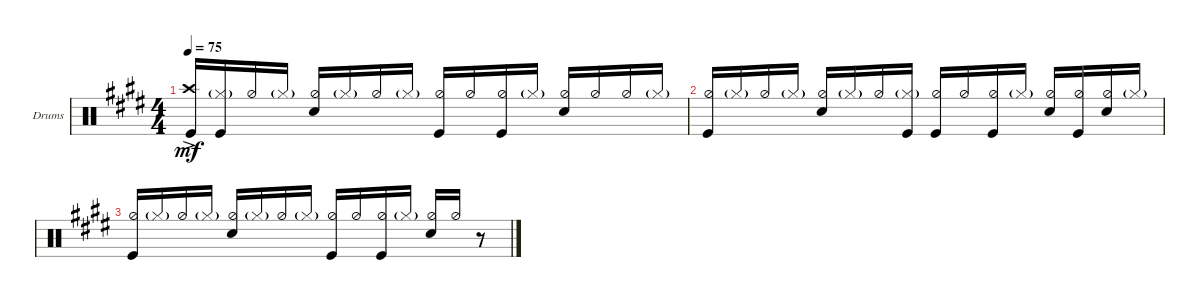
\defaultSystemsLayout 4
\bracketExtendMode groupsimilarinstruments
\firstSystemTrackNameOrientation horizontal
\otherSystemsTrackNameOrientation horizontal
\track ("Drum Kit" "Drums") {multiBarRest instrument percussion}
\staff {score}
\articulation defaults
\ts (4 4)
\tempo 75
\clef neutral
\ks e
("Kick (hit)" "Crash high (hit)"{ac}).16{dy mf} ("Hi-Hat (closed)"{g} "Kick (hit)").16 "Hi-Hat (half)".16 "Hi-Hat (closed)"{g}.16 ("Snare (hit) 2" "Hi-Hat (half)").16{beam invert} "Hi-Hat (closed)"{g}.16 "Hi-Hat (half)".16 "Hi-Hat (closed)"{g}.16 ("Hi-Hat (half)" "Kick (hit)").16{beam invert} "Hi-Hat (half)".16 ("Hi-Hat (half)" "Kick (hit)").16 "Hi-Hat (closed)"{g}.16 ("Hi-Hat (half)" "Snare (hit) 2").16{beam invert} "Hi-Hat (half)".16 "Hi-Hat (half)".16 "Hi-Hat (closed)"{g}.16 |
("Hi-Hat (half)" "Kick (hit)").16{beam invert} "Hi-Hat (closed)"{g}.16 "Hi-Hat (half)".16 "Hi-Hat (closed)"{g}.16 ("Snare (hit) 2" "Hi-Hat (half)").16 "Hi-Hat (closed)"{g}.16 "Hi-Hat (half)".16 ("Hi-Hat (closed)"{g} "Kick (hit)").16 ("Hi-Hat (half)" "Kick (hit)").16{beam invert} "Hi-Hat (half)".16 ("Hi-Hat (half)" "Kick (hit)").16 "Hi-Hat (closed)"{g}.16 ("Hi-Hat (half)" "Snare (hit) 2").16{beam invert} ("Hi-Hat (half)" "Kick (hit)").16 ("Hi-Hat (half)" "Snare (hit) 2").16 "Hi-Hat (closed)"{g}.16 |
("Kick (hit)" "Hi-Hat (half)").16{beam invert} "Hi-Hat (closed)"{g}.16 "Hi-Hat (half)".16 "Hi-Hat (closed)"{g}.16 ("Snare (hit) 2" "Hi-Hat (half)").16{beam invert} "Hi-Hat (closed)"{g}.16 "Hi-Hat (half)".16 "Hi-Hat (closed)"{g}.16 ("Hi-Hat (half)" "Kick (hit)").16{beam invert} "Hi-Hat (half)".16 ("Hi-Hat (half)" "Kick (hit)").16 "Hi-Hat (closed)"{g}.16 ("Hi-Hat (half)" "Snare (hit) 2").16{beam invert} "Hi-Hat (half)".16 r.8
